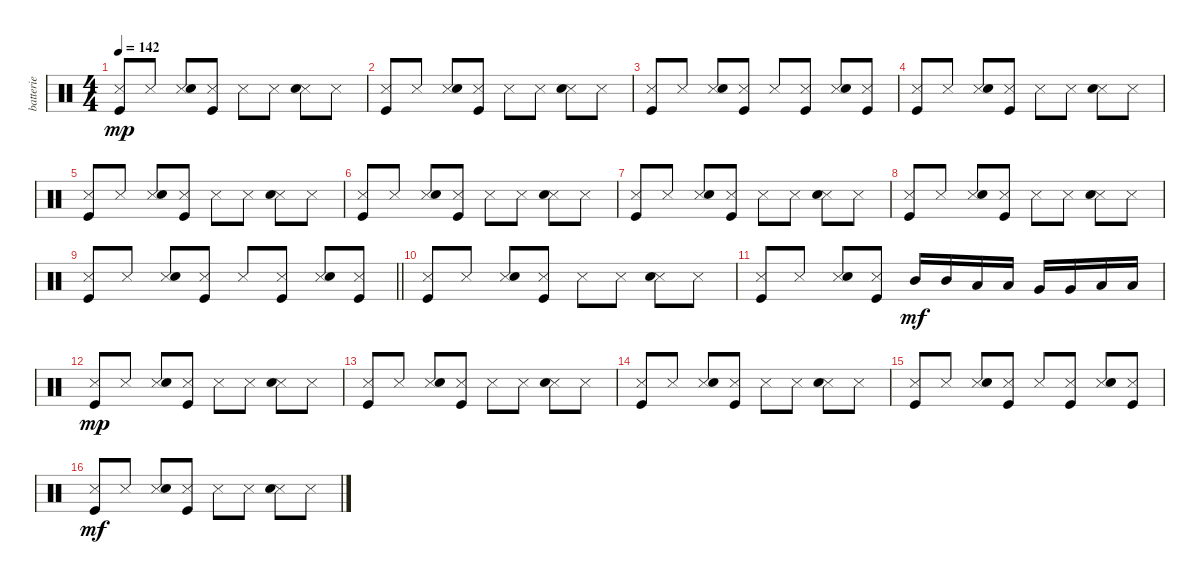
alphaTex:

\track ("batterie" "batterie") {instrument percussion}
\staff {score}
\articulation defaults
\ts (4 4)
\tempo 142
\clef neutral
\ks c
("Snare (side stick) 3" "Kick (hit)").8{dy mp} "Snare (side stick) 3".8 ("Snare (side stick) 3" "Electric Snare (hit)").8 ("Snare (side stick) 3" "Kick (hit)").8 "Snare (side stick) 3".8 "Snare (side stick) 3".8 ("Snare (side stick) 3" "Electric Snare (hit)").8 "Snare (side stick) 3".8 |
("Snare (side stick) 3" "Kick (hit)").8 "Snare (side stick) 3".8 ("Snare (side stick) 3" "Electric Snare (hit)").8 ("Snare (side stick) 3" "Kick (hit)").8 "Snare (side stick) 3".8 "Snare (side stick) 3".8 ("Snare (side stick) 3" "Electric Snare (hit)").8 "Snare (side stick) 3".8 |
("Snare (side stick) 3" "Kick (hit)").8 "Snare (side stick) 3".8 ("Snare (side stick) 3" "Electric Snare (hit)").8 ("Snare (side stick) 3" "Kick (hit)").8 "Snare (side stick) 3".8 ("Snare (side stick) 3" "Kick (hit)").8 ("Snare (side stick) 3" "Electric Snare (hit)").8 ("Snare (side stick) 3" "Kick (hit)").8 |
("Snare (side stick) 3" "Kick (hit)").8 "Snare (side stick) 3".8 ("Snare (side stick) 3" "Electric Snare (hit)").8 ("Snare (side stick) 3" "Kick (hit)").8 "Snare (side stick) 3".8 "Snare (side stick) 3".8 ("Snare (side stick) 3" "Electric Snare (hit)").8 "Snare (side stick) 3".8 |
("Snare (side stick) 3" "Kick (hit)").8 "Snare (side stick) 3".8 ("Snare (side stick) 3" "Electric Snare (hit)").8 ("Snare (side stick) 3" "Kick (hit)").8 "Snare (side stick) 3".8 "Snare (side stick) 3".8 ("Snare (side stick) 3" "Electric Snare (hit)").8 "Snare (side stick) 3".8 |
("Snare (side stick) 3" "Kick (hit)").8 "Snare (side stick) 3".8 ("Snare (side stick) 3" "Electric Snare (hit)").8 ("Snare (side stick) 3" "Kick (hit)").8 "Snare (side stick) 3".8 "Snare (side stick) 3".8 ("Snare (side stick) 3" "Electric Snare (hit)").8 "Snare (side stick) 3".8 |
("Snare (side stick) 3" "Kick (hit)").8 "Snare (side stick) 3".8 ("Snare (side stick) 3" "Electric Snare (hit)").8 ("Snare (side stick) 3" "Kick (hit)").8 "Snare (side stick) 3".8 "Snare (side stick) 3".8 ("Snare (side stick) 3" "Electric Snare (hit)").8 "Snare (side stick) 3".8 |
("Snare (side stick) 3" "Kick (hit)").8 "Snare (side stick) 3".8 ("Snare (side stick) 3" "Electric Snare (hit)").8 ("Snare (side stick) 3" "Kick (hit)").8 "Snare (side stick) 3".8 "Snare (side stick) 3".8 ("Snare (side stick) 3" "Electric Snare (hit)").8 "Snare (side stick) 3".8 |
\barLineRight lightlight
("Snare (side stick) 3" "Kick (hit)").8 "Snare (side stick) 3".8 ("Snare (side stick) 3" "Electric Snare (hit)").8 ("Snare (side stick) 3" "Kick (hit)").8 "Snare (side stick) 3".8 ("Snare (side stick) 3" "Kick (hit)").8 ("Snare (side stick) 3" "Electric Snare (hit)").8 ("Snare (side stick) 3" "Kick (hit)").8 |
("Snare (side stick) 3" "Kick (hit)").8 "Snare (side stick) 3".8 ("Snare (side stick) 3" "Electric Snare (hit)").8 ("Snare (side stick) 3" "Kick (hit)").8 "Snare (side stick) 3".8 "Snare (side stick) 3".8 ("Snare (side stick) 3" "Electric Snare (hit)").8 "Snare (side stick) 3".8 |
("Snare (side stick) 3" "Kick (hit)").8 "Snare (side stick) 3".8 ("Snare (side stick) 3" "Electric Snare (hit)").8 ("Snare (side stick) 3" "Kick (hit)").8 "Mid Tom (hit)".16{dy mf} "Mid Tom (hit)".16 "Low Tom (hit)".16 "Low Tom (hit)".16 "Very Low Tom (hit)".16 "Very Low Tom (hit)".16 "Low Floor Tom (hit)".16 "Low Floor Tom (hit)".16 |
("Snare (side stick) 3" "Kick (hit)").8{dy mp} "Snare (side stick) 3".8 ("Snare (side stick) 3" "Electric Snare (hit)").8 ("Snare (side stick) 3" "Kick (hit)").8 "Snare (side stick) 3".8 "Snare (side stick) 3".8 ("Snare (side stick) 3" "Electric Snare (hit)").8 "Snare (side stick) 3".8 |
("Snare (side stick) 3" "Kick (hit)").8 "Snare (side stick) 3".8 ("Snare (side stick) 3" "Electric Snare (hit)").8 ("Snare (side stick) 3" "Kick (hit)").8 "Snare (side stick) 3".8 "Snare (side stick) 3".8 ("Snare (side stick) 3" "Electric Snare (hit)").8 "Snare (side stick) 3".8 |
("Snare (side stick) 3" "Kick (hit)").8 "Snare (side stick) 3".8 ("Snare (side stick) 3" "Electric Snare (hit)").8 ("Snare (side stick) 3" "Kick (hit)").8 "Snare (side stick) 3".8 "Snare (side stick) 3".8 ("Snare (side stick) 3" "Electric Snare (hit)").8 "Snare (side stick) 3".8 |
("Snare (side stick) 3" "Kick (hit)").8 "Snare (side stick) 3".8 ("Snare (side stick) 3" "Electric Snare (hit)").8 ("Snare (side stick) 3" "Kick (hit)").8 "Snare (side stick) 3".8 ("Snare (side stick) 3" "Kick (hit)").8 ("Snare (side stick) 3" "Electric Snare (hit)").8 ("Snare (side stick) 3" "Kick (hit)").8 |
("Snare (side stick) 3" "Kick (hit)").8{dy mf} "Snare (side stick) 3".8 ("Snare (side stick) 3" "Electric Snare (hit)").8 ("Snare (side stick) 3" "Kick (hit)").8 "Snare (side stick) 3".8 "Snare (side stick) 3".8 ("Snare (side stick) 3" "Electric Snare (hit)").8 "Snare (side stick) 3".8
